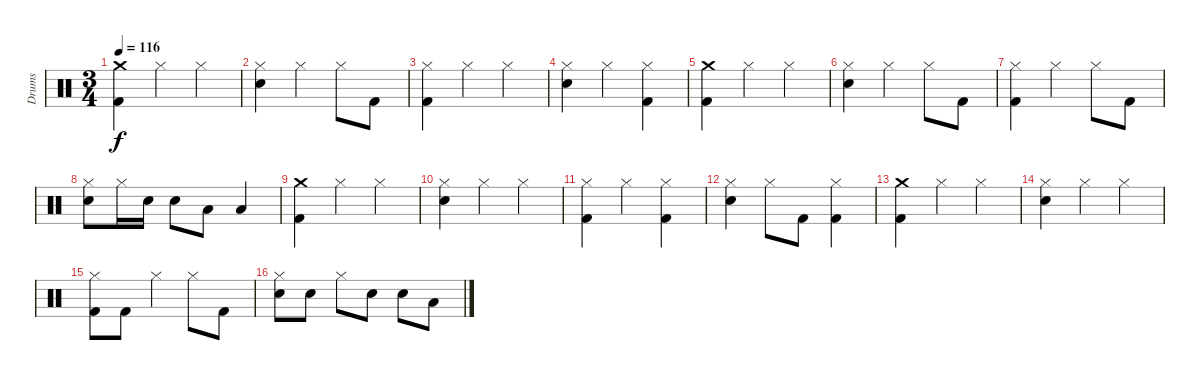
\track ("Drums" "Drums") {instrument percussion}
\staff {score}
\articulation defaults
\ts (3 4)
\tempo 116
\clef neutral
\ks c
("Kick (hit) 2" "Crash medium (hit)").4{dy f} "Hi-Hat (closed)".4 "Hi-Hat (closed)".4 |
("Electric Snare (hit)" "Hi-Hat (closed)").4 "Hi-Hat (closed)".4 "Hi-Hat (closed)".8 "Kick (hit) 2".8 |
("Kick (hit) 2" "Hi-Hat (closed)").4 "Hi-Hat (closed)".4 "Hi-Hat (closed)".4 |
("Electric Snare (hit)" "Hi-Hat (closed)").4 "Hi-Hat (closed)".4 ("Kick (hit) 2" "Hi-Hat (closed)").4 |
("Kick (hit) 2" "Crash medium (hit)").4 "Hi-Hat (closed)".4 "Hi-Hat (closed)".4 |
("Electric Snare (hit)" "Hi-Hat (closed)").4 "Hi-Hat (closed)".4 "Hi-Hat (closed)".8 "Kick (hit) 2".8 |
("Kick (hit) 2" "Hi-Hat (closed)").4 "Hi-Hat (closed)".4 "Hi-Hat (closed)".8 "Kick (hit) 2".8 |
("Electric Snare (hit)" "Hi-Hat (closed)").8 "Hi-Hat (closed)".16 "Electric Snare (hit)".16 "Electric Snare (hit)".8 "Low Tom (hit)".8 "Low Tom (hit)".4 |
("Kick (hit) 2" "Crash medium (hit)").4 "Hi-Hat (closed)".4 "Hi-Hat (closed)".4 |
("Electric Snare (hit)" "Hi-Hat (closed)").4 "Hi-Hat (closed)".4 "Hi-Hat (closed)".4 |
("Kick (hit) 2" "Hi-Hat (closed)").4 "Hi-Hat (closed)".4 ("Kick (hit) 2" "Hi-Hat (closed)").4 |
("Electric Snare (hit)" "Hi-Hat (closed)").4 "Hi-Hat (closed)".8 "Kick (hit) 2".8 ("Kick (hit) 2" "Hi-Hat (closed)").4 |
("Kick (hit) 2" "Crash medium (hit)").4 "Hi-Hat (closed)".4 "Hi-Hat (closed)".4 |
("Electric Snare (hit)" "Hi-Hat (closed)").4 "Hi-Hat (closed)".4 "Hi-Hat (closed)".4 |
("Kick (hit) 2" "Hi-Hat (closed)").8 "Kick (hit) 2".8 "Hi-Hat (closed)".4 "Hi-Hat (closed)".8 "Kick (hit) 2".8 |
("Electric Snare (hit)" "Hi-Hat (closed)").8 "Electric Snare (hit)".8 "Hi-Hat (closed)".8 "Electric Snare (hit)".8 "Electric Snare (hit)".8 "Low Tom (hit)".8
